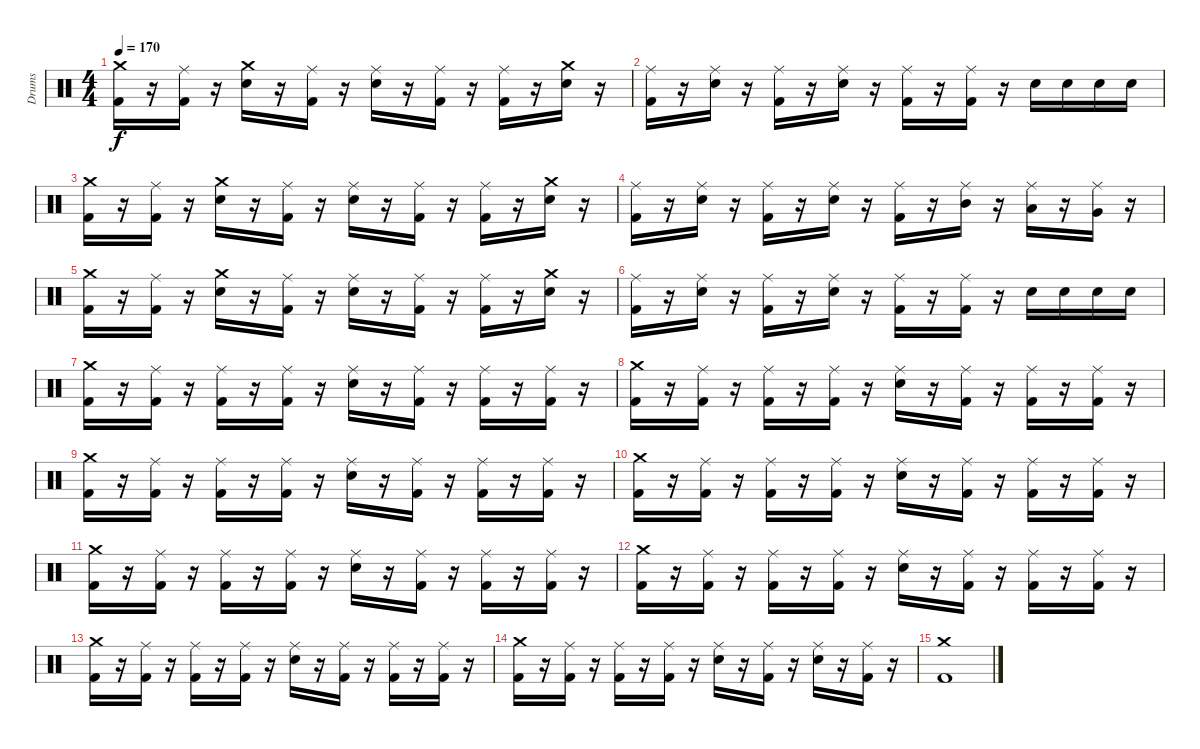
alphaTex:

\track ("Drums" "Drums") {instrument percussion}
\staff {score}
\articulation defaults
\ts (4 4)
\tempo 170
\clef neutral
\ks c
("Crash medium (hit)" "Kick (hit) 2").16{dy f} r.16 ("Ride (middle)" "Kick (hit) 2").16 r.16 ("Crash medium (hit)" "Snare (hit) 2").16 r.16 ("Ride (middle)" "Kick (hit) 2").16 r.16 ("Ride (middle)" "Snare (hit) 2").16 r.16 ("Ride (middle)" "Kick (hit) 2").16 r.16 ("Ride (middle)" "Kick (hit) 2").16 r.16 ("Crash medium (hit)" "Snare (hit) 2").16 r.16 |
("Ride (middle)" "Kick (hit) 2").16 r.16 ("Ride (middle)" "Snare (hit) 2").16 r.16 ("Ride (middle)" "Kick (hit) 2").16 r.16 ("Ride (middle)" "Snare (hit) 2").16 r.16 ("Ride (middle)" "Kick (hit) 2").16 r.16 ("Ride (middle)" "Kick (hit) 2").16 r.16 "Snare (hit) 2".16 "Snare (hit) 2".16 "Snare (hit) 2".16 "Snare (hit) 2".16 |
("Crash medium (hit)" "Kick (hit) 2").16 r.16 ("Ride (middle)" "Kick (hit) 2").16 r.16 ("Crash medium (hit)" "Snare (hit) 2").16 r.16 ("Ride (middle)" "Kick (hit) 2").16 r.16 ("Ride (middle)" "Snare (hit) 2").16 r.16 ("Ride (middle)" "Kick (hit) 2").16 r.16 ("Ride (middle)" "Kick (hit) 2").16 r.16 ("Crash medium (hit)" "Snare (hit) 2").16 r.16 |
("Ride (middle)" "Kick (hit) 2").16 r.16 ("Ride (middle)" "Snare (hit) 2").16 r.16 ("Ride (middle)" "Kick (hit) 2").16 r.16 ("Ride (middle)" "Snare (hit) 2").16 r.16 ("Ride (middle)" "Kick (hit) 2").16 r.16 ("Ride (middle)" "Mid Tom (hit)").16 r.16 ("Ride (middle)" "Low Tom (hit)").16 r.16 ("Ride (middle)" "Very Low Tom (hit)").16 r.16 |
("Crash medium (hit)" "Kick (hit) 2").16 r.16 ("Ride (middle)" "Kick (hit) 2").16 r.16 ("Crash medium (hit)" "Snare (hit) 2").16 r.16 ("Ride (middle)" "Kick (hit) 2").16 r.16 ("Ride (middle)" "Snare (hit) 2").16 r.16 ("Ride (middle)" "Kick (hit) 2").16 r.16 ("Ride (middle)" "Kick (hit) 2").16 r.16 ("Crash medium (hit)" "Snare (hit) 2").16 r.16 |
("Ride (middle)" "Kick (hit) 2").16 r.16 ("Ride (middle)" "Snare (hit) 2").16 r.16 ("Ride (middle)" "Kick (hit) 2").16 r.16 ("Ride (middle)" "Snare (hit) 2").16 r.16 ("Ride (middle)" "Kick (hit) 2").16 r.16 ("Ride (middle)" "Kick (hit) 2").16 r.16 "Snare (hit) 2".16 "Snare (hit) 2".16 "Snare (hit) 2".16 "Snare (hit) 2".16 |
("Crash medium (hit)" "Kick (hit) 2").16 r.16 ("Ride (middle)" "Kick (hit) 2").16 r.16 ("Ride (middle)" "Kick (hit) 2").16 r.16 ("Ride (middle)" "Kick (hit) 2").16 r.16 ("Ride (middle)" "Snare (hit) 2").16 r.16 ("Ride (middle)" "Kick (hit) 2").16 r.16 ("Ride (middle)" "Kick (hit) 2").16 r.16 ("Ride (middle)" "Kick (hit) 2").16 r.16 |
("Crash medium (hit)" "Kick (hit) 2").16 r.16 ("Ride (middle)" "Kick (hit) 2").16 r.16 ("Ride (middle)" "Kick (hit) 2").16 r.16 ("Ride (middle)" "Kick (hit) 2").16 r.16 ("Ride (middle)" "Snare (hit) 2").16 r.16 ("Ride (middle)" "Kick (hit) 2").16 r.16 ("Ride (middle)" "Kick (hit) 2").16 r.16 ("Ride (middle)" "Kick (hit) 2").16 r.16 |
("Crash medium (hit)" "Kick (hit) 2").16 r.16 ("Ride (middle)" "Kick (hit) 2").16 r.16 ("Ride (middle)" "Kick (hit) 2").16 r.16 ("Ride (middle)" "Kick (hit) 2").16 r.16 ("Ride (middle)" "Snare (hit) 2").16 r.16 ("Ride (middle)" "Kick (hit) 2").16 r.16 ("Ride (middle)" "Kick (hit) 2").16 r.16 ("Ride (middle)" "Kick (hit) 2").16 r.16 |
("Crash medium (hit)" "Kick (hit) 2").16 r.16 ("Ride (middle)" "Kick (hit) 2").16 r.16 ("Ride (middle)" "Kick (hit) 2").16 r.16 ("Ride (middle)" "Kick (hit) 2").16 r.16 ("Ride (middle)" "Snare (hit) 2").16 r.16 ("Ride (middle)" "Kick (hit) 2").16 r.16 ("Ride (middle)" "Kick (hit) 2").16 r.16 ("Ride (middle)" "Kick (hit) 2").16 r.16 |
("Crash medium (hit)" "Kick (hit) 2").16 r.16 ("Ride (middle)" "Kick (hit) 2").16 r.16 ("Ride (middle)" "Kick (hit) 2").16 r.16 ("Ride (middle)" "Kick (hit) 2").16 r.16 ("Ride (middle)" "Snare (hit) 2").16 r.16 ("Ride (middle)" "Kick (hit) 2").16 r.16 ("Ride (middle)" "Kick (hit) 2").16 r.16 ("Ride (middle)" "Kick (hit) 2").16 r.16 |
("Crash medium (hit)" "Kick (hit) 2").16 r.16 ("Ride (middle)" "Kick (hit) 2").16 r.16 ("Ride (middle)" "Kick (hit) 2").16 r.16 ("Ride (middle)" "Kick (hit) 2").16 r.16 ("Ride (middle)" "Snare (hit) 2").16 r.16 ("Ride (middle)" "Kick (hit) 2").16 r.16 ("Ride (middle)" "Kick (hit) 2").16 r.16 ("Ride (middle)" "Kick (hit) 2").16 r.16 |
("Crash medium (hit)" "Kick (hit) 2").16 r.16 ("Ride (middle)" "Kick (hit) 2").16 r.16 ("Ride (middle)" "Kick (hit) 2").16 r.16 ("Ride (middle)" "Kick (hit) 2").16 r.16 ("Ride (middle)" "Snare (hit) 2").16 r.16 ("Ride (middle)" "Kick (hit) 2").16 r.16 ("Ride (middle)" "Kick (hit) 2").16 r.16 ("Ride (middle)" "Kick (hit) 2").16 r.16 |
("Crash medium (hit)" "Kick (hit) 2").16 r.16 ("Ride (middle)" "Kick (hit) 2").16 r.16 ("Ride (middle)" "Kick (hit) 2").16 r.16 ("Ride (middle)" "Kick (hit) 2").16 r.16 ("Ride (middle)" "Snare (hit) 2").16 r.16 ("Ride (middle)" "Kick (hit) 2").16 r.16 ("Ride (middle)" "Snare (hit) 2").16 r.16 ("Ride (middle)" "Kick (hit) 2").16 r.16 |
("Crash medium (hit)" "Kick (hit) 2").1
